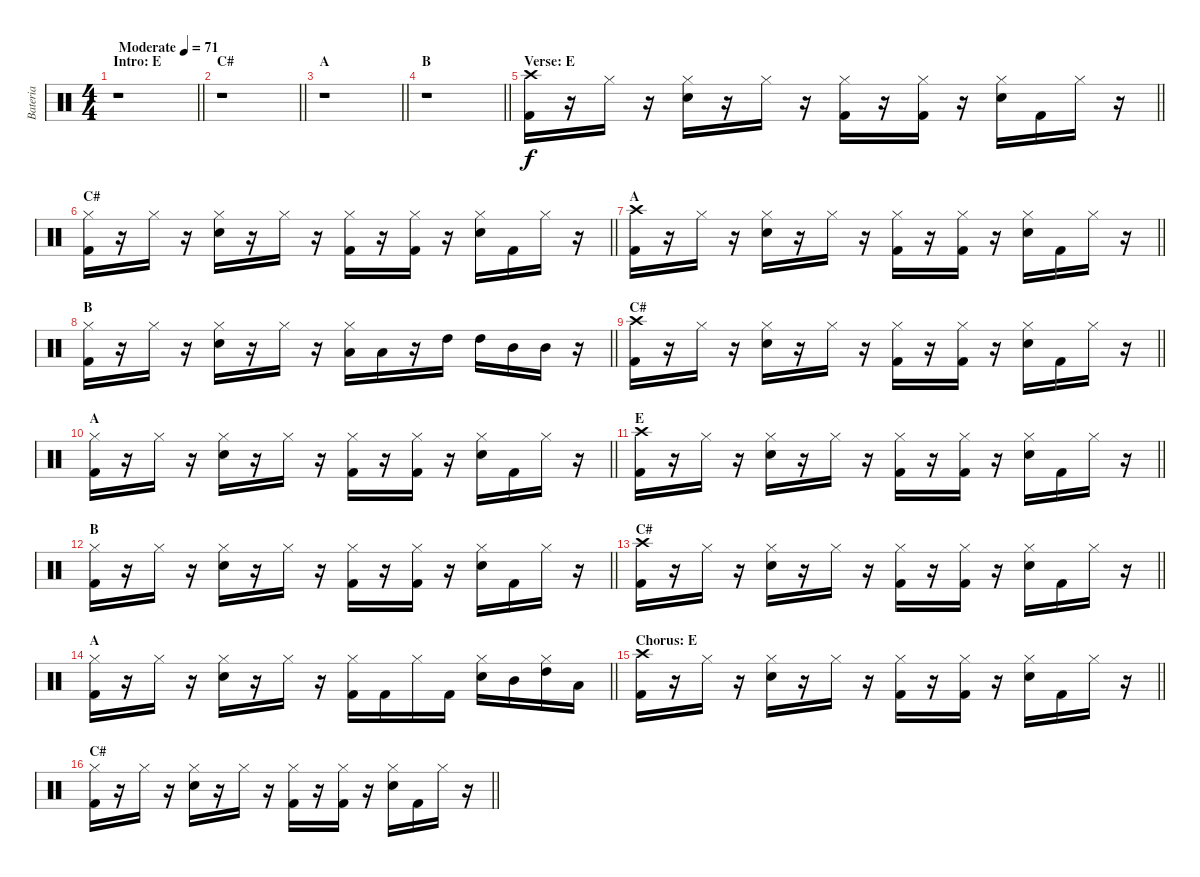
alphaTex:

\track ("Bateria" "Bateria") {instrument percussion}
\staff {score}
\articulation defaults
\ts (4 4)
\section ("" "Intro: E")
\tempo (71 "Moderate")
\clef neutral
\barLineRight lightlight
\ks c
r.1{dy f} |
\section ("" "C#")
\barLineRight lightlight
r.1 |
\section ("" "A")
\barLineRight lightlight
r.1 |
\section ("" "B")
\barLineRight lightlight
r.1 |
\section ("" "Verse: E")
\barLineRight lightlight
("Crash high (hit)" "Kick (hit) 2").16 r.16 "Hi-Hat (closed)".16 r.16 ("Hi-Hat (closed)" "Electric Snare (hit)").16 r.16 "Hi-Hat (closed)".16 r.16 ("Hi-Hat (closed)" "Kick (hit) 2").16 r.16 ("Hi-Hat (closed)" "Kick (hit) 2").16 r.16 ("Hi-Hat (closed)" "Electric Snare (hit)").16 "Kick (hit) 2".16 "Hi-Hat (closed)".16 r.16 |
\section ("" "C#")
\barLineRight lightlight
("Hi-Hat (closed)" "Kick (hit) 2").16 r.16 "Hi-Hat (closed)".16 r.16 ("Hi-Hat (closed)" "Electric Snare (hit)").16 r.16 "Hi-Hat (closed)".16 r.16 ("Hi-Hat (closed)" "Kick (hit) 2").16 r.16 ("Hi-Hat (closed)" "Kick (hit) 2").16 r.16 ("Hi-Hat (closed)" "Electric Snare (hit)").16 "Kick (hit) 2".16 "Hi-Hat (closed)".16 r.16 |
\section ("" "A")
\barLineRight lightlight
("Crash high (hit)" "Kick (hit) 2").16 r.16 "Hi-Hat (closed)".16 r.16 ("Hi-Hat (closed)" "Electric Snare (hit)").16 r.16 "Hi-Hat (closed)".16 r.16 ("Hi-Hat (closed)" "Kick (hit) 2").16 r.16 ("Hi-Hat (closed)" "Kick (hit) 2").16 r.16 ("Hi-Hat (closed)" "Electric Snare (hit)").16 "Kick (hit) 2".16 "Hi-Hat (closed)".16 r.16 |
\section ("" "B")
\barLineRight lightlight
("Hi-Hat (closed)" "Kick (hit) 2").16 r.16 "Hi-Hat (closed)".16 r.16 ("Hi-Hat (closed)" "Electric Snare (hit)").16 r.16 "Hi-Hat (closed)".16 r.16 ("Hi-Hat (closed)" "Low Tom (hit)").16 "Low Tom (hit)".16 r.16 "High Tom (hit)".16 "High Tom (hit)".16 "Mid Tom (hit)".16 "Mid Tom (hit)".16 r.16 |
\section ("" "C#")
\barLineRight lightlight
("Crash high (hit)" "Kick (hit) 2").16 r.16 "Hi-Hat (closed)".16 r.16 ("Hi-Hat (closed)" "Electric Snare (hit)").16 r.16 "Hi-Hat (closed)".16 r.16 ("Hi-Hat (closed)" "Kick (hit) 2").16 r.16 ("Hi-Hat (closed)" "Kick (hit) 2").16 r.16 ("Hi-Hat (closed)" "Electric Snare (hit)").16 "Kick (hit) 2".16 "Hi-Hat (closed)".16 r.16 |
\section ("" "A")
\barLineRight lightlight
("Hi-Hat (closed)" "Kick (hit) 2").16 r.16 "Hi-Hat (closed)".16 r.16 ("Hi-Hat (closed)" "Electric Snare (hit)").16 r.16 "Hi-Hat (closed)".16 r.16 ("Hi-Hat (closed)" "Kick (hit) 2").16 r.16 ("Hi-Hat (closed)" "Kick (hit) 2").16 r.16 ("Hi-Hat (closed)" "Electric Snare (hit)").16 "Kick (hit) 2".16 "Hi-Hat (closed)".16 r.16 |
\section ("" "E")
\barLineRight lightlight
("Crash high (hit)" "Kick (hit) 2").16 r.16 "Hi-Hat (closed)".16 r.16 ("Hi-Hat (closed)" "Electric Snare (hit)").16 r.16 "Hi-Hat (closed)".16 r.16 ("Hi-Hat (closed)" "Kick (hit) 2").16 r.16 ("Hi-Hat (closed)" "Kick (hit) 2").16 r.16 ("Hi-Hat (closed)" "Electric Snare (hit)").16 "Kick (hit) 2".16 "Hi-Hat (closed)".16 r.16 |
\section ("" "B")
\barLineRight lightlight
("Hi-Hat (closed)" "Kick (hit) 2").16 r.16 "Hi-Hat (closed)".16 r.16 ("Hi-Hat (closed)" "Electric Snare (hit)").16 r.16 "Hi-Hat (closed)".16 r.16 ("Hi-Hat (closed)" "Kick (hit) 2").16 r.16 ("Hi-Hat (closed)" "Kick (hit) 2").16 r.16 ("Hi-Hat (closed)" "Electric Snare (hit)").16 "Kick (hit) 2".16 "Hi-Hat (closed)".16 r.16 |
\section ("" "C#")
\barLineRight lightlight
("Crash high (hit)" "Kick (hit) 2").16 r.16 "Hi-Hat (closed)".16 r.16 ("Hi-Hat (closed)" "Electric Snare (hit)").16 r.16 "Hi-Hat (closed)".16 r.16 ("Hi-Hat (closed)" "Kick (hit) 2").16 r.16 ("Hi-Hat (closed)" "Kick (hit) 2").16 r.16 ("Hi-Hat (closed)" "Electric Snare (hit)").16 "Kick (hit) 2".16 "Hi-Hat (closed)".16 r.16 |
\section ("" "A")
\barLineRight lightlight
("Hi-Hat (closed)" "Kick (hit) 2").16 r.16 "Hi-Hat (closed)".16 r.16 ("Hi-Hat (closed)" "Electric Snare (hit)").16 r.16 "Hi-Hat (closed)".16 r.16 ("Hi-Hat (closed)" "Kick (hit) 2").16 "Kick (hit) 2".16 "Hi-Hat (closed)".16 "Kick (hit) 2".16 ("Hi-Hat (closed)" "Electric Snare (hit)").16 "Mid Tom (hit)".16 ("Hi-Hat (closed)" "High Tom (hit)").16 "Low Floor Tom (hit)".16 |
\section ("" "Chorus: E")
\barLineRight lightlight
("Crash high (hit)" "Kick (hit) 2").16 r.16 "Hi-Hat (closed)".16 r.16 ("Hi-Hat (closed)" "Electric Snare (hit)").16 r.16 "Hi-Hat (closed)".16 r.16 ("Hi-Hat (closed)" "Kick (hit) 2").16 r.16 ("Hi-Hat (closed)" "Kick (hit) 2").16 r.16 ("Hi-Hat (closed)" "Electric Snare (hit)").16 "Kick (hit) 2".16 "Hi-Hat (closed)".16 r.16 |
\section ("" "C#")
\barLineRight lightlight
("Hi-Hat (closed)" "Kick (hit) 2").16 r.16 "Hi-Hat (closed)".16 r.16 ("Hi-Hat (closed)" "Electric Snare (hit)").16 r.16 "Hi-Hat (closed)".16 r.16 ("Hi-Hat (closed)" "Kick (hit) 2").16 r.16 ("Hi-Hat (closed)" "Kick (hit) 2").16 r.16 ("Hi-Hat (closed)" "Electric Snare (hit)").16 "Kick (hit) 2".16 "Hi-Hat (closed)".16 r.16
